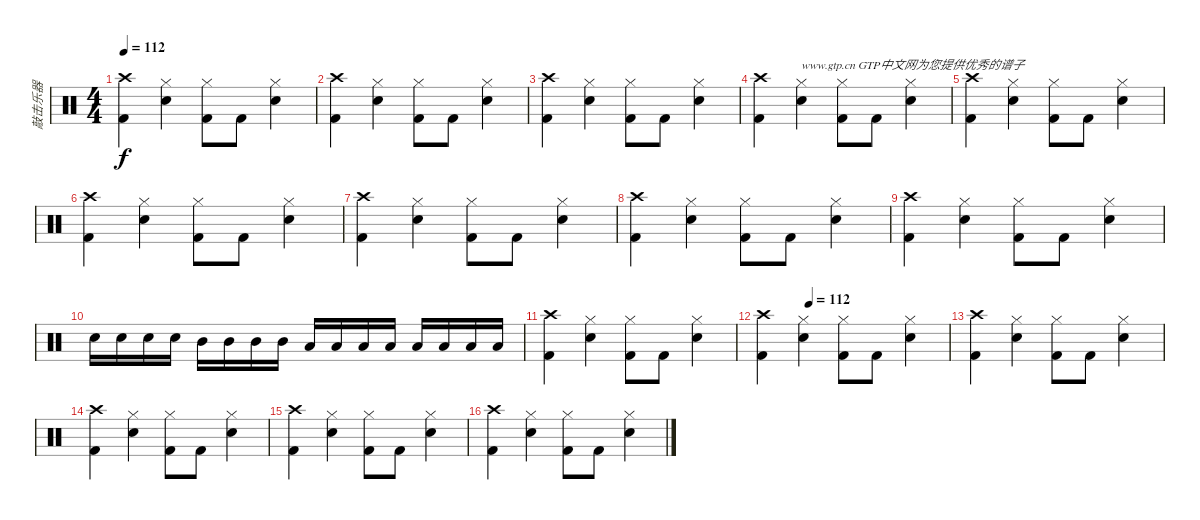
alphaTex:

\track ("敲击乐器" "敲击乐器") {instrument percussion}
\staff {score}
\articulation defaults
\ts (4 4)
\tempo 112
\clef neutral
\ks c
("Crash high (hit)" "Kick (hit) 2").4{dy f} ("Hi-Hat (closed)" "Snare (hit) 2").4 ("Hi-Hat (closed)" "Kick (hit) 2").8 "Kick (hit) 2".8 ("Hi-Hat (closed)" "Snare (hit) 2").4 |
("Crash high (hit)" "Kick (hit) 2").4 ("Hi-Hat (closed)" "Snare (hit) 2").4 ("Hi-Hat (closed)" "Kick (hit) 2").8 "Kick (hit) 2".8 ("Hi-Hat (closed)" "Snare (hit) 2").4 |
("Crash high (hit)" "Kick (hit) 2").4 ("Hi-Hat (closed)" "Snare (hit) 2").4 ("Hi-Hat (closed)" "Kick (hit) 2").8 "Kick (hit) 2".8 ("Hi-Hat (closed)" "Snare (hit) 2").4 |
("Crash high (hit)" "Kick (hit) 2").4 ("Hi-Hat (closed)" "Snare (hit) 2").4{txt "www.gtp.cn GTP中文网为您提供优秀的谱子"} ("Hi-Hat (closed)" "Kick (hit) 2").8 "Kick (hit) 2".8 ("Hi-Hat (closed)" "Snare (hit) 2").4 |
("Crash high (hit)" "Kick (hit) 2").4 ("Hi-Hat (closed)" "Snare (hit) 2").4 ("Hi-Hat (closed)" "Kick (hit) 2").8 "Kick (hit) 2".8 ("Hi-Hat (closed)" "Snare (hit) 2").4 |
("Crash high (hit)" "Kick (hit) 2").4 ("Hi-Hat (closed)" "Snare (hit) 2").4 ("Hi-Hat (closed)" "Kick (hit) 2").8 "Kick (hit) 2".8 ("Hi-Hat (closed)" "Snare (hit) 2").4 |
("Crash high (hit)" "Kick (hit) 2").4 ("Hi-Hat (closed)" "Snare (hit) 2").4 ("Hi-Hat (closed)" "Kick (hit) 2").8 "Kick (hit) 2".8 ("Hi-Hat (closed)" "Snare (hit) 2").4 |
("Crash high (hit)" "Kick (hit) 2").4 ("Hi-Hat (closed)" "Snare (hit) 2").4 ("Hi-Hat (closed)" "Kick (hit) 2").8 "Kick (hit) 2".8 ("Hi-Hat (closed)" "Snare (hit) 2").4 |
("Crash high (hit)" "Kick (hit) 2").4 ("Hi-Hat (closed)" "Snare (hit) 2").4 ("Hi-Hat (closed)" "Kick (hit) 2").8 "Kick (hit) 2".8 ("Hi-Hat (closed)" "Snare (hit) 2").4 |
"Snare (hit) 2".16 "Snare (hit) 2".16 "Snare (hit) 2".16 "Snare (hit) 2".16 "Mid Tom (hit)".16 "Mid Tom (hit)".16 "Mid Tom (hit)".16 "Mid Tom (hit)".16 "Low Tom (hit)".16 "Low Tom (hit)".16 "Low Tom (hit)".16 "Low Tom (hit)".16 "Low Floor Tom (hit)".16 "Low Floor Tom (hit)".16 "Low Floor Tom (hit)".16 "Low Floor Tom (hit)".16 |
("Crash high (hit)" "Kick (hit) 2").4 ("Hi-Hat (closed)" "Snare (hit) 2").4 ("Hi-Hat (closed)" "Kick (hit) 2").8 "Kick (hit) 2".8 ("Hi-Hat (closed)" "Snare (hit) 2").4 |
\tempo (112 0.25)
("Crash high (hit)" "Kick (hit) 2").4 ("Hi-Hat (closed)" "Snare (hit) 2").4 ("Hi-Hat (closed)" "Kick (hit) 2").8 "Kick (hit) 2".8 ("Hi-Hat (closed)" "Snare (hit) 2").4 |
("Crash high (hit)" "Kick (hit) 2").4 ("Hi-Hat (closed)" "Snare (hit) 2").4 ("Hi-Hat (closed)" "Kick (hit) 2").8 "Kick (hit) 2".8 ("Hi-Hat (closed)" "Snare (hit) 2").4 |
("Crash high (hit)" "Kick (hit) 2").4 ("Hi-Hat (closed)" "Snare (hit) 2").4 ("Hi-Hat (closed)" "Kick (hit) 2").8 "Kick (hit) 2".8 ("Hi-Hat (closed)" "Snare (hit) 2").4 |
("Crash high (hit)" "Kick (hit) 2").4 ("Hi-Hat (closed)" "Snare (hit) 2").4 ("Hi-Hat (closed)" "Kick (hit) 2").8 "Kick (hit) 2".8 ("Hi-Hat (closed)" "Snare (hit) 2").4 |
("Crash high (hit)" "Kick (hit) 2").4 ("Hi-Hat (closed)" "Snare (hit) 2").4 ("Hi-Hat (closed)" "Kick (hit) 2").8 "Kick (hit) 2".8 ("Hi-Hat (closed)" "Snare (hit) 2").4
